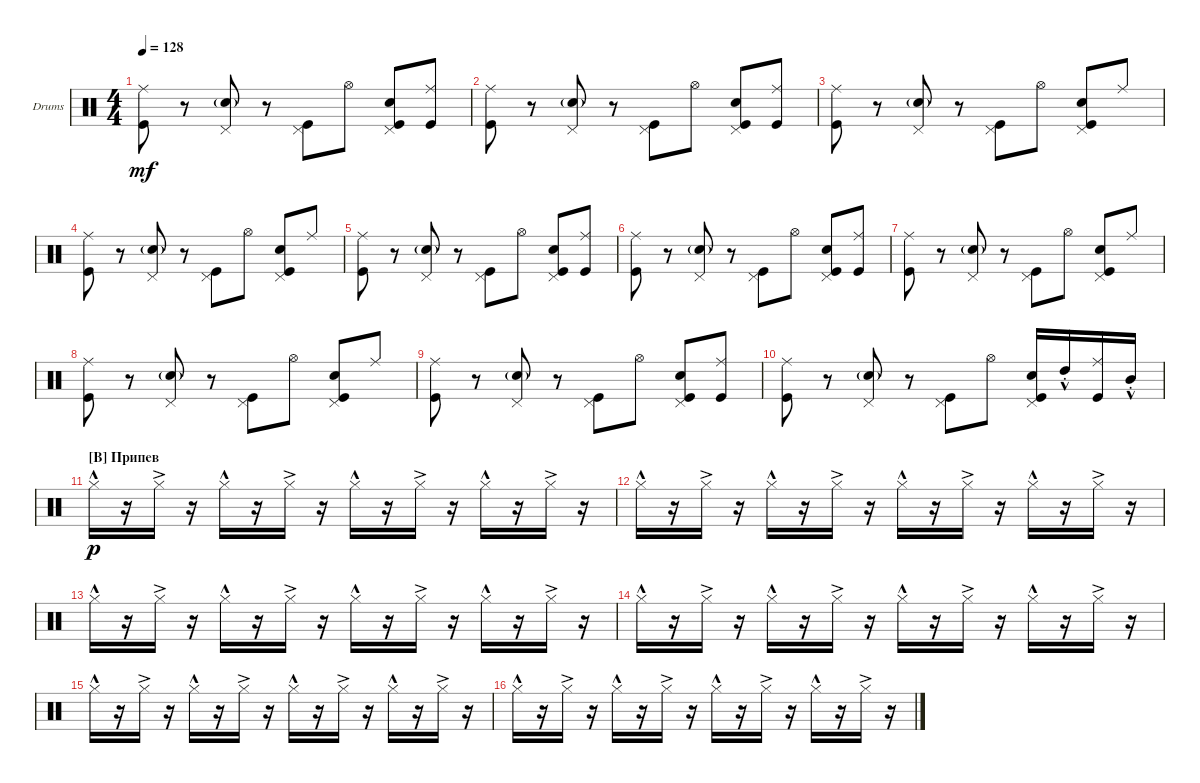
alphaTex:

\defaultSystemsLayout 4
\bracketExtendMode groupsimilarinstruments
\firstSystemTrackNameOrientation horizontal
\otherSystemsTrackNameOrientation horizontal
\track ("Drumkit" "Drums") {instrument percussion}
\staff {score}
\articulation defaults
\ts (4 4)
\tempo 128
\clef neutral
\ks c
("Kick (hit)" "Ride (middle)").8{dy mf} r.8 ("Snare (hit) 2"{g} "Pedal Hi-Hat (hit)").8 r.8 ("Pedal Hi-Hat (hit)" "Kick (hit)").8 "Hi-Hat (open)".8 ("Kick (hit)" "Snare (hit) 2" "Pedal Hi-Hat (hit)").8 ("Kick (hit)" "Ride (middle)").8 |
("Kick (hit)" "Ride (middle)").8 r.8 ("Snare (hit) 2"{g} "Pedal Hi-Hat (hit)").8 r.8 ("Pedal Hi-Hat (hit)" "Kick (hit)").8 "Hi-Hat (open)".8 ("Kick (hit)" "Snare (hit) 2" "Pedal Hi-Hat (hit)").8 ("Kick (hit)" "Ride (middle)").8 |
("Kick (hit)" "Ride (middle)").8 r.8 ("Snare (hit) 2"{g} "Pedal Hi-Hat (hit)").8 r.8 ("Pedal Hi-Hat (hit)" "Kick (hit)").8 "Hi-Hat (open)".8 ("Kick (hit)" "Snare (hit) 2" "Pedal Hi-Hat (hit)").8 "Ride (middle)".8 |
("Kick (hit)" "Ride (middle)").8 r.8 ("Snare (hit) 2"{g} "Pedal Hi-Hat (hit)").8 r.8 ("Pedal Hi-Hat (hit)" "Kick (hit)").8 "Hi-Hat (open)".8 ("Kick (hit)" "Snare (hit) 2" "Pedal Hi-Hat (hit)").8 "Ride (middle)".8 |
("Kick (hit)" "Ride (middle)").8 r.8 ("Snare (hit) 2"{g} "Pedal Hi-Hat (hit)").8 r.8 ("Pedal Hi-Hat (hit)" "Kick (hit)").8 "Hi-Hat (open)".8 ("Kick (hit)" "Snare (hit) 2" "Pedal Hi-Hat (hit)").8 ("Kick (hit)" "Ride (middle)").8 |
("Kick (hit)" "Ride (middle)").8 r.8 ("Snare (hit) 2"{g} "Pedal Hi-Hat (hit)").8 r.8 ("Pedal Hi-Hat (hit)" "Kick (hit)").8 "Hi-Hat (open)".8 ("Kick (hit)" "Snare (hit) 2" "Pedal Hi-Hat (hit)").8 ("Kick (hit)" "Ride (middle)").8 |
("Kick (hit)" "Ride (middle)").8 r.8 ("Snare (hit) 2"{g} "Pedal Hi-Hat (hit)").8 r.8 ("Pedal Hi-Hat (hit)" "Kick (hit)").8 "Hi-Hat (open)".8 ("Kick (hit)" "Snare (hit) 2" "Pedal Hi-Hat (hit)").8 "Ride (middle)".8 |
("Kick (hit)" "Ride (middle)").8 r.8 ("Snare (hit) 2"{g} "Pedal Hi-Hat (hit)").8 r.8 ("Pedal Hi-Hat (hit)" "Kick (hit)").8 "Hi-Hat (open)".8 ("Kick (hit)" "Snare (hit) 2" "Pedal Hi-Hat (hit)").8 "Ride (middle)".8 |
("Kick (hit)" "Ride (middle)").8 r.8 ("Snare (hit) 2"{g} "Pedal Hi-Hat (hit)").8 r.8 ("Pedal Hi-Hat (hit)" "Kick (hit)").8 "Hi-Hat (open)".8 ("Kick (hit)" "Snare (hit) 2" "Pedal Hi-Hat (hit)").8 ("Kick (hit)" "Ride (middle)").8 |
("Kick (hit)" "Ride (middle)").8 r.8 ("Snare (hit) 2"{g} "Pedal Hi-Hat (hit)").8 r.8 ("Pedal Hi-Hat (hit)" "Kick (hit)").8 "Hi-Hat (open)".8 ("Kick (hit)" "Snare (hit) 2" "Pedal Hi-Hat (hit)").16 "High Tom (hit)"{hac st}.16 ("Kick (hit)" "Ride (middle)").16 "Mid Tom (hit)"{hac st}.16 |
\section ("B" "Припев")
"Hi-Hat (closed)"{hac}.16{dy p} r.16 "Hi-Hat (closed)"{ac}.16 r.16 "Hi-Hat (closed)"{hac}.16 r.16 "Hi-Hat (closed)"{ac}.16 r.16 "Hi-Hat (closed)"{hac}.16 r.16 "Hi-Hat (closed)"{ac}.16 r.16 "Hi-Hat (closed)"{hac}.16 r.16 "Hi-Hat (closed)"{ac}.16 r.16 |
"Hi-Hat (closed)"{hac}.16 r.16 "Hi-Hat (closed)"{ac}.16 r.16 "Hi-Hat (closed)"{hac}.16 r.16 "Hi-Hat (closed)"{ac}.16 r.16 "Hi-Hat (closed)"{hac}.16 r.16 "Hi-Hat (closed)"{ac}.16 r.16 "Hi-Hat (closed)"{hac}.16 r.16 "Hi-Hat (closed)"{ac}.16 r.16 |
"Hi-Hat (closed)"{hac}.16 r.16 "Hi-Hat (closed)"{ac}.16 r.16 "Hi-Hat (closed)"{hac}.16 r.16 "Hi-Hat (closed)"{ac}.16 r.16 "Hi-Hat (closed)"{hac}.16 r.16 "Hi-Hat (closed)"{ac}.16 r.16 "Hi-Hat (closed)"{hac}.16 r.16 "Hi-Hat (closed)"{ac}.16 r.16 |
"Hi-Hat (closed)"{hac}.16 r.16 "Hi-Hat (closed)"{ac}.16 r.16 "Hi-Hat (closed)"{hac}.16 r.16 "Hi-Hat (closed)"{ac}.16 r.16 "Hi-Hat (closed)"{hac}.16 r.16 "Hi-Hat (closed)"{ac}.16 r.16 "Hi-Hat (closed)"{hac}.16 r.16 "Hi-Hat (closed)"{ac}.16 r.16 |
"Hi-Hat (closed)"{hac}.16 r.16 "Hi-Hat (closed)"{ac}.16 r.16 "Hi-Hat (closed)"{hac}.16 r.16 "Hi-Hat (closed)"{ac}.16 r.16 "Hi-Hat (closed)"{hac}.16 r.16 "Hi-Hat (closed)"{ac}.16 r.16 "Hi-Hat (closed)"{hac}.16 r.16 "Hi-Hat (closed)"{ac}.16 r.16 |
"Hi-Hat (closed)"{hac}.16 r.16 "Hi-Hat (closed)"{ac}.16 r.16 "Hi-Hat (closed)"{hac}.16 r.16 "Hi-Hat (closed)"{ac}.16 r.16 "Hi-Hat (closed)"{hac}.16 r.16 "Hi-Hat (closed)"{ac}.16 r.16 "Hi-Hat (closed)"{hac}.16 r.16 "Hi-Hat (closed)"{ac}.16 r.16
